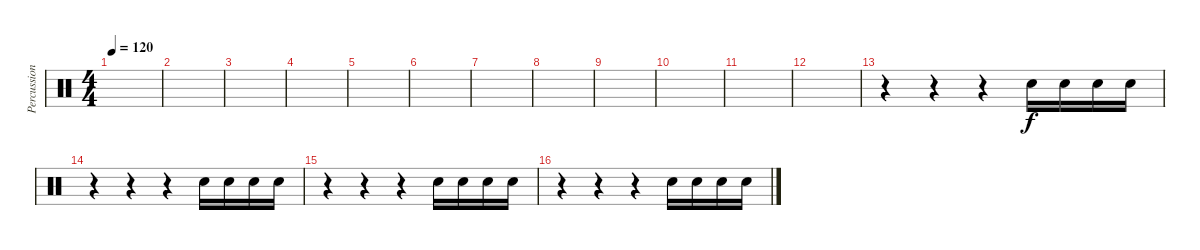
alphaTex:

\track ("Percussion" "Percussion") {instrument percussion}
\staff {score}
\articulation defaults
\ts (4 4)
\tempo 120
\clef neutral
\ks c
|
|
|
|
|
|
|
|
|
|
|
|
r.4 r.4 r.4 "Hand Clap (hit)".16 "Hand Clap (hit)".16 "Hand Clap (hit)".16 "Hand Clap (hit)".16 |
r.4 r.4 r.4 "Hand Clap (hit)".16 "Hand Clap (hit)".16 "Hand Clap (hit)".16 "Hand Clap (hit)".16 |
r.4 r.4 r.4 "Hand Clap (hit)".16 "Hand Clap (hit)".16 "Hand Clap (hit)".16 "Hand Clap (hit)".16 |
r.4 r.4 r.4 "Hand Clap (hit)".16 "Hand Clap (hit)".16 "Hand Clap (hit)".16 "Hand Clap (hit)".16
